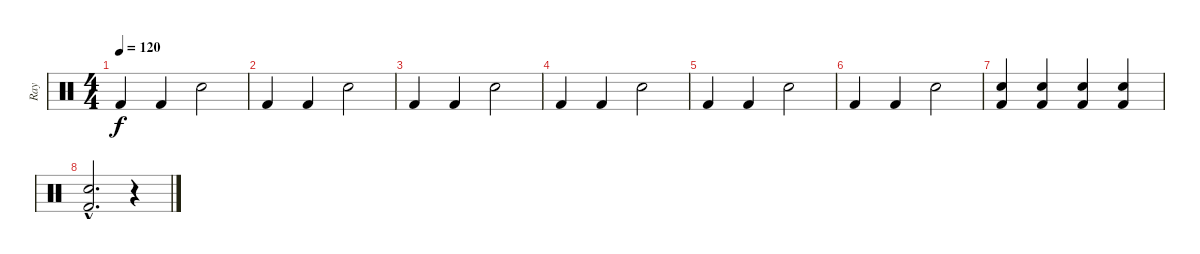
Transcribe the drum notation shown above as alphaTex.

\track ("Ray" "Ray") {instrument percussion}
\staff {score}
\articulation defaults
\ts (4 4)
\tempo 120
\clef neutral
\ks c "Kick (hit) 2".4{dy f} "Kick (hit) 2".4 "Snare (hit) 2".2
|
"Kick (hit) 2".4 "Kick (hit) 2".4 "Snare (hit) 2".2 |
"Kick (hit) 2".4 "Kick (hit) 2".4 "Snare (hit) 2".2 |
"Kick (hit) 2".4 "Kick (hit) 2".4 "Snare (hit) 2".2 |
"Kick (hit) 2".4 "Kick (hit) 2".4 "Snare (hit) 2".2 |
"Kick (hit) 2".4 "Kick (hit) 2".4 "Snare (hit) 2".2 |
("Snare (hit) 2" "Kick (hit) 2").4 ("Snare (hit) 2" "Kick (hit) 2").4 ("Snare (hit) 2" "Kick (hit) 2").4 ("Snare (hit) 2" "Kick (hit) 2").4 |
("Snare (hit) 2"{hac} "Kick (hit) 2"{hac}).2{d} r.4
